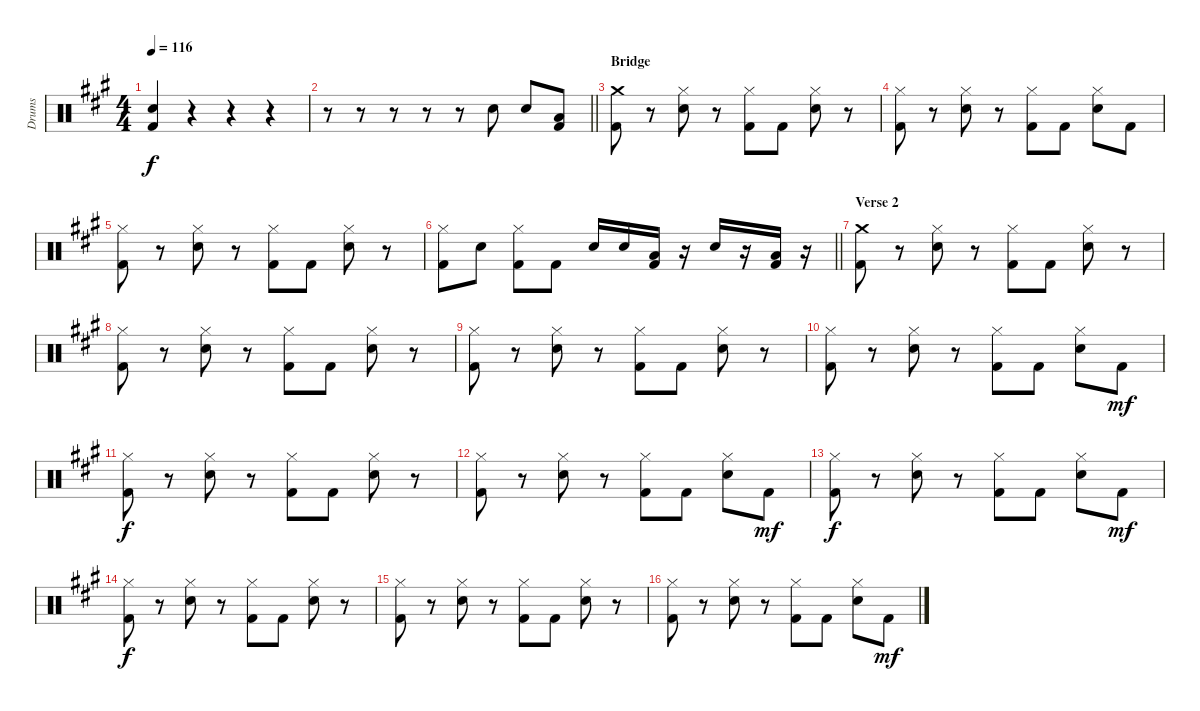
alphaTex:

\track ("Drums" "Drums") {instrument percussion}
\staff {score}
\articulation defaults
\ts (4 4)
\tempo 116
\clef neutral
\ks a
("Snare (hit) 2" "Kick (hit) 2").4{dy f} r.4 r.4 r.4 |
\barLineRight lightlight
r.8 r.8 r.8 r.8 r.8 "Snare (hit) 2".8 "Snare (hit) 2".8 ("Low Floor Tom (hit)" "Kick (hit) 2").8 |
\section ("" "Bridge")
("Crash medium (hit)" "Kick (hit) 2").8 r.8 ("Snare (hit) 2" "Hi-Hat (closed)").8 r.8 ("Kick (hit) 2" "Hi-Hat (closed)").8 "Kick (hit) 2".8 ("Snare (hit) 2" "Hi-Hat (closed)").8 r.8 |
("Kick (hit) 2" "Hi-Hat (closed)").8 r.8 ("Snare (hit) 2" "Hi-Hat (closed)").8 r.8 ("Kick (hit) 2" "Hi-Hat (closed)").8 "Kick (hit) 2".8 ("Snare (hit) 2" "Hi-Hat (closed)").8 "Kick (hit) 2".8 |
("Kick (hit) 2" "Hi-Hat (closed)").8 r.8 ("Snare (hit) 2" "Hi-Hat (closed)").8 r.8 ("Kick (hit) 2" "Hi-Hat (closed)").8 "Kick (hit) 2".8 ("Snare (hit) 2" "Hi-Hat (closed)").8 r.8 |
\barLineRight lightlight
("Kick (hit) 2" "Hi-Hat (closed)").8 "Snare (hit) 2".8 ("Kick (hit) 2" "Hi-Hat (closed)").8 "Kick (hit) 2".8 "Snare (hit) 2".16 "Snare (hit) 2".16 ("Low Tom (hit)" "Kick (hit) 2").16 r.16 "Snare (hit) 2".16 r.16 ("Low Floor Tom (hit)" "Kick (hit) 2").16 r.16 |
\section ("" "Verse 2")
("Crash medium (hit)" "Kick (hit) 2").8 r.8 ("Snare (hit) 2" "Hi-Hat (closed)").8 r.8 ("Kick (hit) 2" "Hi-Hat (closed)").8 "Kick (hit) 2".8 ("Snare (hit) 2" "Hi-Hat (closed)").8 r.8 |
("Kick (hit) 2" "Hi-Hat (closed)").8 r.8 ("Snare (hit) 2" "Hi-Hat (closed)").8 r.8 ("Kick (hit) 2" "Hi-Hat (closed)").8 "Kick (hit) 2".8 ("Snare (hit) 2" "Hi-Hat (closed)").8 r.8 |
("Kick (hit) 2" "Hi-Hat (closed)").8 r.8 ("Snare (hit) 2" "Hi-Hat (closed)").8 r.8 ("Kick (hit) 2" "Hi-Hat (closed)").8 "Kick (hit) 2".8 ("Snare (hit) 2" "Hi-Hat (closed)").8 r.8 |
("Kick (hit) 2" "Hi-Hat (closed)").8 r.8 ("Snare (hit) 2" "Hi-Hat (closed)").8 r.8 ("Kick (hit) 2" "Hi-Hat (closed)").8 "Kick (hit) 2".8 ("Snare (hit) 2" "Hi-Hat (closed)").8 "Kick (hit) 2".8{dy mf} |
("Kick (hit) 2" "Hi-Hat (closed)").8{dy f} r.8 ("Snare (hit) 2" "Hi-Hat (closed)").8 r.8 ("Kick (hit) 2" "Hi-Hat (closed)").8 "Kick (hit) 2".8 ("Snare (hit) 2" "Hi-Hat (closed)").8 r.8 |
("Kick (hit) 2" "Hi-Hat (closed)").8 r.8 ("Snare (hit) 2" "Hi-Hat (closed)").8 r.8 ("Kick (hit) 2" "Hi-Hat (closed)").8 "Kick (hit) 2".8 ("Snare (hit) 2" "Hi-Hat (closed)").8 "Kick (hit) 2".8{dy mf} |
("Kick (hit) 2" "Hi-Hat (closed)").8{dy f} r.8 ("Snare (hit) 2" "Hi-Hat (closed)").8 r.8 ("Kick (hit) 2" "Hi-Hat (closed)").8 "Kick (hit) 2".8 ("Snare (hit) 2" "Hi-Hat (closed)").8 "Kick (hit) 2".8{dy mf} |
("Kick (hit) 2" "Hi-Hat (closed)").8{dy f} r.8 ("Snare (hit) 2" "Hi-Hat (closed)").8 r.8 ("Kick (hit) 2" "Hi-Hat (closed)").8 "Kick (hit) 2".8 ("Snare (hit) 2" "Hi-Hat (closed)").8 r.8 |
("Kick (hit) 2" "Hi-Hat (closed)").8 r.8 ("Snare (hit) 2" "Hi-Hat (closed)").8 r.8 ("Kick (hit) 2" "Hi-Hat (closed)").8 "Kick (hit) 2".8 ("Snare (hit) 2" "Hi-Hat (closed)").8 r.8 |
("Kick (hit) 2" "Hi-Hat (closed)").8 r.8 ("Snare (hit) 2" "Hi-Hat (closed)").8 r.8 ("Kick (hit) 2" "Hi-Hat (closed)").8 "Kick (hit) 2".8 ("Snare (hit) 2" "Hi-Hat (closed)").8 "Kick (hit) 2".8{dy mf}
